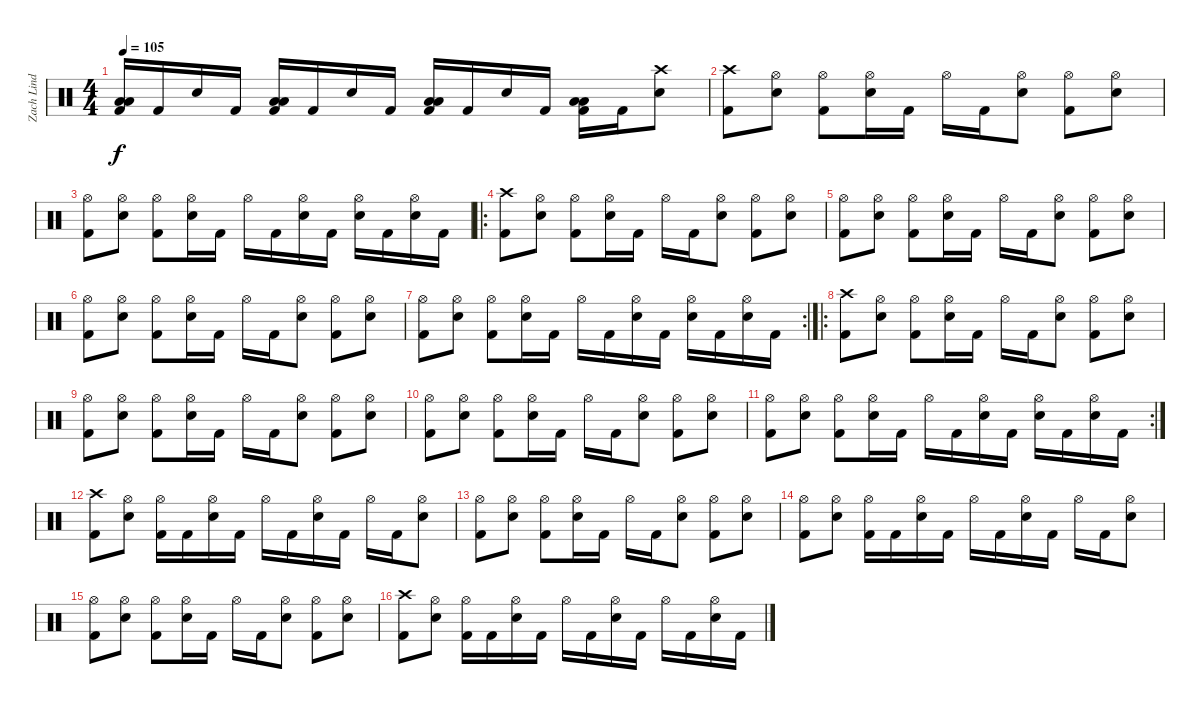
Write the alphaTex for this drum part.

\track ("Zach Lind" "Zach Lind") {instrument percussion}
\staff {score}
\articulation defaults
\ts (4 4)
\tempo 105
\clef neutral
\ks c
("Low Tom (hit)" "Low Floor Tom (hit)" "Kick (hit) 2").16{dy f} "Kick (hit) 2".16 "Snare (hit) 2".16 "Kick (hit) 2".16 ("Low Tom (hit)" "Low Floor Tom (hit)" "Kick (hit) 2").16 "Kick (hit) 2".16 "Snare (hit) 2".16 "Kick (hit) 2".16 ("Low Tom (hit)" "Low Floor Tom (hit)" "Kick (hit) 2").16 "Kick (hit) 2".16 "Snare (hit) 2".16 "Kick (hit) 2".16 ("Low Tom (hit)" "Low Floor Tom (hit)" "Kick (hit) 2").16 "Kick (hit) 2".16 ("Crash high (hit)" "Snare (hit) 2").8 |
("Crash high (hit)" "Kick (hit) 2").8 ("Hi-Hat (open)" "Snare (hit) 2").8 ("Hi-Hat (open)" "Kick (hit) 2").8 ("Hi-Hat (open)" "Snare (hit) 2").16 "Kick (hit) 2".16 "Hi-Hat (open)".16 "Kick (hit) 2".16 ("Hi-Hat (open)" "Snare (hit) 2").8 ("Hi-Hat (open)" "Kick (hit) 2").8 ("Hi-Hat (open)" "Snare (hit) 2").8 |
("Hi-Hat (open)" "Kick (hit) 2").8 ("Hi-Hat (open)" "Snare (hit) 2").8 ("Hi-Hat (open)" "Kick (hit) 2").8 ("Hi-Hat (open)" "Snare (hit) 2").16 "Kick (hit) 2".16 "Hi-Hat (open)".16 "Kick (hit) 2".16 ("Hi-Hat (open)" "Snare (hit) 2").16 "Kick (hit) 2".16 ("Hi-Hat (open)" "Snare (hit) 2").16 "Kick (hit) 2".16 ("Hi-Hat (open)" "Snare (hit) 2").16 "Kick (hit) 2".16 |
\ro
("Crash high (hit)" "Kick (hit) 2").8 ("Hi-Hat (open)" "Snare (hit) 2").8 ("Hi-Hat (open)" "Kick (hit) 2").8 ("Hi-Hat (open)" "Snare (hit) 2").16 "Kick (hit) 2".16 "Hi-Hat (open)".16 "Kick (hit) 2".16 ("Hi-Hat (open)" "Snare (hit) 2").8 ("Hi-Hat (open)" "Kick (hit) 2").8 ("Hi-Hat (open)" "Snare (hit) 2").8 |
("Hi-Hat (open)" "Kick (hit) 2").8 ("Hi-Hat (open)" "Snare (hit) 2").8 ("Hi-Hat (open)" "Kick (hit) 2").8 ("Hi-Hat (open)" "Snare (hit) 2").16 "Kick (hit) 2".16 "Hi-Hat (open)".16 "Kick (hit) 2".16 ("Hi-Hat (open)" "Snare (hit) 2").8 ("Hi-Hat (open)" "Kick (hit) 2").8 ("Hi-Hat (open)" "Snare (hit) 2").8 |
("Hi-Hat (open)" "Kick (hit) 2").8 ("Hi-Hat (open)" "Snare (hit) 2").8 ("Hi-Hat (open)" "Kick (hit) 2").8 ("Hi-Hat (open)" "Snare (hit) 2").16 "Kick (hit) 2".16 "Hi-Hat (open)".16 "Kick (hit) 2".16 ("Hi-Hat (open)" "Snare (hit) 2").8 ("Hi-Hat (open)" "Kick (hit) 2").8 ("Hi-Hat (open)" "Snare (hit) 2").8 |
\rc 2
("Hi-Hat (open)" "Kick (hit) 2").8 ("Hi-Hat (open)" "Snare (hit) 2").8 ("Hi-Hat (open)" "Kick (hit) 2").8 ("Hi-Hat (open)" "Snare (hit) 2").16 "Kick (hit) 2".16 "Hi-Hat (open)".16 "Kick (hit) 2".16 ("Hi-Hat (open)" "Snare (hit) 2").16 "Kick (hit) 2".16 ("Hi-Hat (open)" "Snare (hit) 2").16 "Kick (hit) 2".16 ("Hi-Hat (open)" "Snare (hit) 2").16 "Kick (hit) 2".16 |
\ro
("Crash high (hit)" "Kick (hit) 2").8 ("Hi-Hat (open)" "Snare (hit) 2").8 ("Hi-Hat (open)" "Kick (hit) 2").8 ("Hi-Hat (open)" "Snare (hit) 2").16 "Kick (hit) 2".16 "Hi-Hat (open)".16 "Kick (hit) 2".16 ("Hi-Hat (open)" "Snare (hit) 2").8 ("Hi-Hat (open)" "Kick (hit) 2").8 ("Hi-Hat (open)" "Snare (hit) 2").8 |
("Hi-Hat (open)" "Kick (hit) 2").8 ("Hi-Hat (open)" "Snare (hit) 2").8 ("Hi-Hat (open)" "Kick (hit) 2").8 ("Hi-Hat (open)" "Snare (hit) 2").16 "Kick (hit) 2".16 "Hi-Hat (open)".16 "Kick (hit) 2".16 ("Hi-Hat (open)" "Snare (hit) 2").8 ("Hi-Hat (open)" "Kick (hit) 2").8 ("Hi-Hat (open)" "Snare (hit) 2").8 |
("Hi-Hat (open)" "Kick (hit) 2").8 ("Hi-Hat (open)" "Snare (hit) 2").8 ("Hi-Hat (open)" "Kick (hit) 2").8 ("Hi-Hat (open)" "Snare (hit) 2").16 "Kick (hit) 2".16 "Hi-Hat (open)".16 "Kick (hit) 2".16 ("Hi-Hat (open)" "Snare (hit) 2").8 ("Hi-Hat (open)" "Kick (hit) 2").8 ("Hi-Hat (open)" "Snare (hit) 2").8 |
\rc 2
("Hi-Hat (open)" "Kick (hit) 2").8 ("Hi-Hat (open)" "Snare (hit) 2").8 ("Hi-Hat (open)" "Kick (hit) 2").8 ("Hi-Hat (open)" "Snare (hit) 2").16 "Kick (hit) 2".16 "Hi-Hat (open)".16 "Kick (hit) 2".16 ("Hi-Hat (open)" "Snare (hit) 2").16 "Kick (hit) 2".16 ("Hi-Hat (open)" "Snare (hit) 2").16 "Kick (hit) 2".16 ("Hi-Hat (open)" "Snare (hit) 2").16 "Kick (hit) 2".16 |
("Crash high (hit)" "Kick (hit) 2").8 ("Hi-Hat (open)" "Snare (hit) 2").8 ("Hi-Hat (open)" "Kick (hit) 2").16 "Kick (hit) 2".16 ("Hi-Hat (open)" "Snare (hit) 2").16 "Kick (hit) 2".16 "Hi-Hat (open)".16 "Kick (hit) 2".16 ("Hi-Hat (open)" "Snare (hit) 2").16 "Kick (hit) 2".16 "Hi-Hat (open)".16 "Kick (hit) 2".16 ("Hi-Hat (open)" "Snare (hit) 2").8 |
("Hi-Hat (open)" "Kick (hit) 2").8 ("Hi-Hat (open)" "Snare (hit) 2").8 ("Hi-Hat (open)" "Kick (hit) 2").8 ("Hi-Hat (open)" "Snare (hit) 2").16 "Kick (hit) 2".16 "Hi-Hat (open)".16 "Kick (hit) 2".16 ("Hi-Hat (open)" "Snare (hit) 2").8 ("Hi-Hat (open)" "Kick (hit) 2").8 ("Hi-Hat (open)" "Snare (hit) 2").8 |
("Hi-Hat (open)" "Kick (hit) 2").8 ("Hi-Hat (open)" "Snare (hit) 2").8 ("Hi-Hat (open)" "Kick (hit) 2").16 "Kick (hit) 2".16 ("Hi-Hat (open)" "Snare (hit) 2").16 "Kick (hit) 2".16 "Hi-Hat (open)".16 "Kick (hit) 2".16 ("Hi-Hat (open)" "Snare (hit) 2").16 "Kick (hit) 2".16 "Hi-Hat (open)".16 "Kick (hit) 2".16 ("Hi-Hat (open)" "Snare (hit) 2").8 |
("Hi-Hat (open)" "Kick (hit) 2").8 ("Hi-Hat (open)" "Snare (hit) 2").8 ("Hi-Hat (open)" "Kick (hit) 2").8 ("Hi-Hat (open)" "Snare (hit) 2").16 "Kick (hit) 2".16 "Hi-Hat (open)".16 "Kick (hit) 2".16 ("Hi-Hat (open)" "Snare (hit) 2").8 ("Hi-Hat (open)" "Kick (hit) 2").8 ("Hi-Hat (open)" "Snare (hit) 2").8 |
("Crash high (hit)" "Kick (hit) 2").8 ("Hi-Hat (open)" "Snare (hit) 2").8 ("Hi-Hat (open)" "Kick (hit) 2").16 "Kick (hit) 2".16 ("Hi-Hat (open)" "Snare (hit) 2").16 "Kick (hit) 2".16 "Hi-Hat (open)".16 "Kick (hit) 2".16 ("Hi-Hat (open)" "Snare (hit) 2").16 "Kick (hit) 2".16 "Hi-Hat (open)".16 "Kick (hit) 2".16 ("Hi-Hat (open)" "Snare (hit) 2").16 "Kick (hit) 2".16
